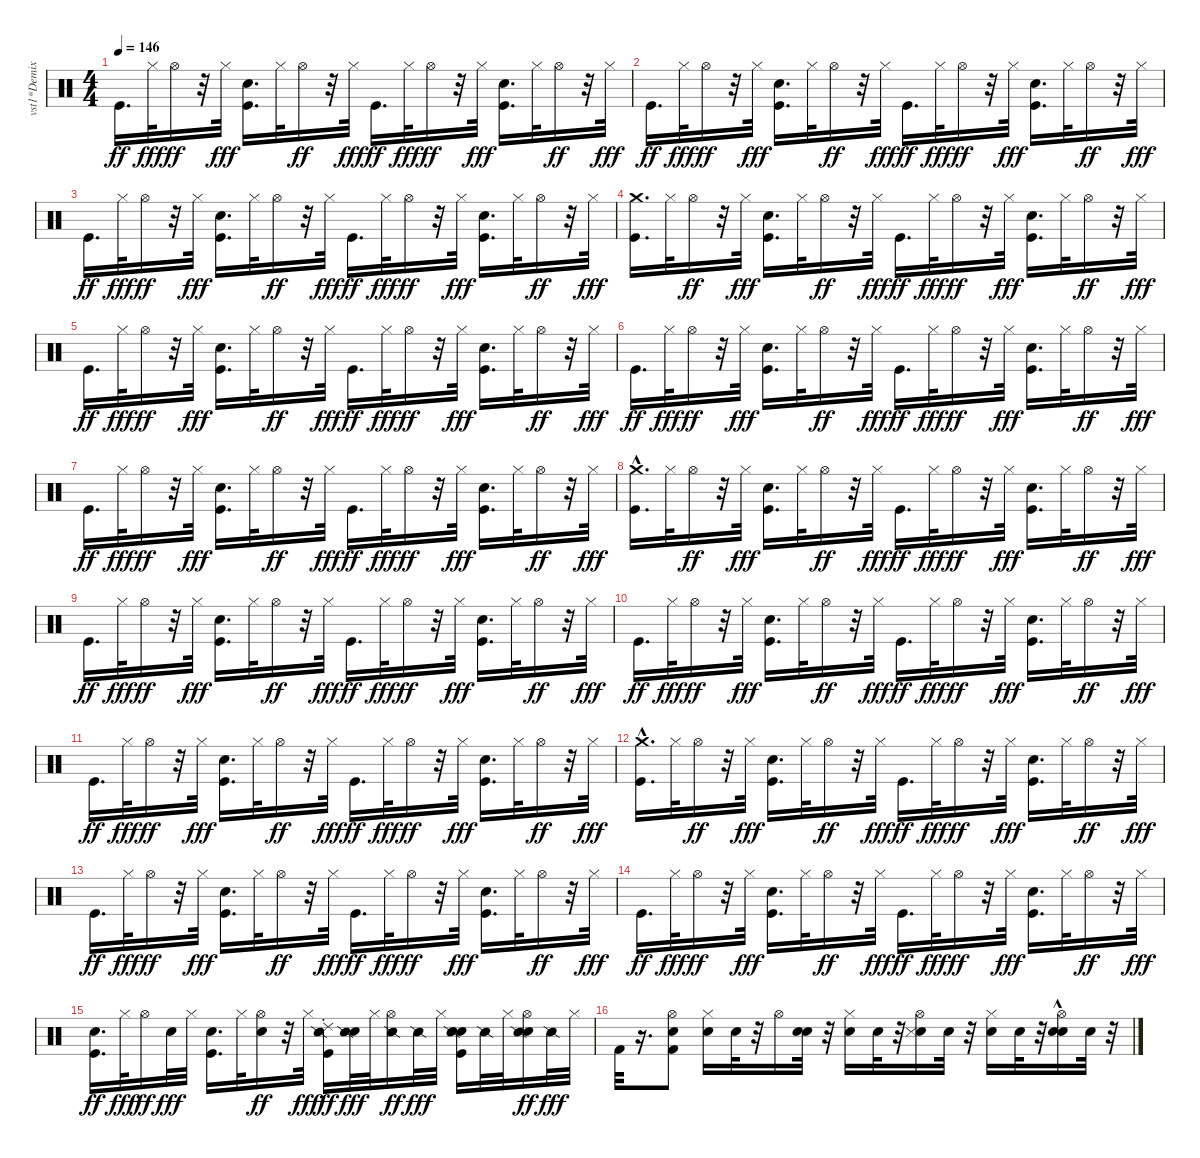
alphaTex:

\track ("vst1*Demixed 10" "vst1*Demix") {instrument percussion}
\staff {score}
\articulation defaults
\ts (4 4)
\tempo 146
\clef neutral
\ks c "Kick (hit)".16{d dy ff} "Hi-Hat (closed)".32{dy fff} "Hi-Hat (open)".16{dy ff}
r.32 "Hi-Hat (closed)".32{dy fff} ("Kick (hit)" "Hand Clap (hit)").16{d} "Hi-Hat (closed)".32 "Hi-Hat (open)".16{dy ff} r.32 "Hi-Hat (closed)".32{dy fff} "Kick (hit)".16{d dy ff} "Hi-Hat (closed)".32{dy fff} "Hi-Hat (open)".16{dy ff} r.32 "Hi-Hat (closed)".32{dy fff} ("Kick (hit)" "Hand Clap (hit)").16{d} "Hi-Hat (closed)".32 "Hi-Hat (open)".16{dy ff} r.32 "Hi-Hat (closed)".32{dy fff} |
"Kick (hit)".16{d dy ff} "Hi-Hat (closed)".32{dy fff} "Hi-Hat (open)".16{dy ff} r.32 "Hi-Hat (closed)".32{dy fff} ("Kick (hit)" "Hand Clap (hit)").16{d} "Hi-Hat (closed)".32 "Hi-Hat (open)".16{dy ff} r.32 "Hi-Hat (closed)".32{dy fff} "Kick (hit)".16{d dy ff} "Hi-Hat (closed)".32{dy fff} "Hi-Hat (open)".16{dy ff} r.32 "Hi-Hat (closed)".32{dy fff} ("Kick (hit)" "Hand Clap (hit)").16{d} "Hi-Hat (closed)".32 "Hi-Hat (open)".16{dy ff} r.32 "Hi-Hat (closed)".32{dy fff} |
"Kick (hit)".16{d dy ff} "Hi-Hat (closed)".32{dy fff} "Hi-Hat (open)".16{dy ff} r.32 "Hi-Hat (closed)".32{dy fff} ("Kick (hit)" "Hand Clap (hit)").16{d} "Hi-Hat (closed)".32 "Hi-Hat (open)".16{dy ff} r.32 "Hi-Hat (closed)".32{dy fff} "Kick (hit)".16{d dy ff} "Hi-Hat (closed)".32{dy fff} "Hi-Hat (open)".16{dy ff} r.32 "Hi-Hat (closed)".32{dy fff} ("Kick (hit)" "Hand Clap (hit)").16{d} "Hi-Hat (closed)".32 "Hi-Hat (open)".16{dy ff} r.32 "Hi-Hat (closed)".32{dy fff} |
("Kick (hit)" "Crash medium (hit)").16{d} "Hi-Hat (closed)".32 "Hi-Hat (open)".16{dy ff} r.32 "Hi-Hat (closed)".32{dy fff} ("Kick (hit)" "Hand Clap (hit)").16{d} "Hi-Hat (closed)".32 "Hi-Hat (open)".16{dy ff} r.32 "Hi-Hat (closed)".32{dy fff} "Kick (hit)".16{d dy ff} "Hi-Hat (closed)".32{dy fff} "Hi-Hat (open)".16{dy ff} r.32 "Hi-Hat (closed)".32{dy fff} ("Kick (hit)" "Hand Clap (hit)").16{d} "Hi-Hat (closed)".32 "Hi-Hat (open)".16{dy ff} r.32 "Hi-Hat (closed)".32{dy fff} |
"Kick (hit)".16{d dy ff} "Hi-Hat (closed)".32{dy fff} "Hi-Hat (open)".16{dy ff} r.32 "Hi-Hat (closed)".32{dy fff} ("Kick (hit)" "Hand Clap (hit)").16{d} "Hi-Hat (closed)".32 "Hi-Hat (open)".16{dy ff} r.32 "Hi-Hat (closed)".32{dy fff} "Kick (hit)".16{d dy ff} "Hi-Hat (closed)".32{dy fff} "Hi-Hat (open)".16{dy ff} r.32 "Hi-Hat (closed)".32{dy fff} ("Kick (hit)" "Hand Clap (hit)").16{d} "Hi-Hat (closed)".32 "Hi-Hat (open)".16{dy ff} r.32 "Hi-Hat (closed)".32{dy fff} |
"Kick (hit)".16{d dy ff} "Hi-Hat (closed)".32{dy fff} "Hi-Hat (open)".16{dy ff} r.32 "Hi-Hat (closed)".32{dy fff} ("Kick (hit)" "Hand Clap (hit)").16{d} "Hi-Hat (closed)".32 "Hi-Hat (open)".16{dy ff} r.32 "Hi-Hat (closed)".32{dy fff} "Kick (hit)".16{d dy ff} "Hi-Hat (closed)".32{dy fff} "Hi-Hat (open)".16{dy ff} r.32 "Hi-Hat (closed)".32{dy fff} ("Kick (hit)" "Hand Clap (hit)").16{d} "Hi-Hat (closed)".32 "Hi-Hat (open)".16{dy ff} r.32 "Hi-Hat (closed)".32{dy fff} |
"Kick (hit)".16{d dy ff} "Hi-Hat (closed)".32{dy fff} "Hi-Hat (open)".16{dy ff} r.32 "Hi-Hat (closed)".32{dy fff} ("Kick (hit)" "Hand Clap (hit)").16{d} "Hi-Hat (closed)".32 "Hi-Hat (open)".16{dy ff} r.32 "Hi-Hat (closed)".32{dy fff} "Kick (hit)".16{d dy ff} "Hi-Hat (closed)".32{dy fff} "Hi-Hat (open)".16{dy ff} r.32 "Hi-Hat (closed)".32{dy fff} ("Kick (hit)" "Hand Clap (hit)").16{d} "Hi-Hat (closed)".32 "Hi-Hat (open)".16{dy ff} r.32 "Hi-Hat (closed)".32{dy fff} |
("Kick (hit)" "Crash medium (hit)"{hac}).16{d} "Hi-Hat (closed)".32 "Hi-Hat (open)".16{dy ff} r.32 "Hi-Hat (closed)".32{dy fff} ("Kick (hit)" "Hand Clap (hit)").16{d} "Hi-Hat (closed)".32 "Hi-Hat (open)".16{dy ff} r.32 "Hi-Hat (closed)".32{dy fff} "Kick (hit)".16{d dy ff} "Hi-Hat (closed)".32{dy fff} "Hi-Hat (open)".16{dy ff} r.32 "Hi-Hat (closed)".32{dy fff} ("Kick (hit)" "Hand Clap (hit)").16{d} "Hi-Hat (closed)".32 "Hi-Hat (open)".16{dy ff} r.32 "Hi-Hat (closed)".32{dy fff} |
"Kick (hit)".16{d dy ff} "Hi-Hat (closed)".32{dy fff} "Hi-Hat (open)".16{dy ff} r.32 "Hi-Hat (closed)".32{dy fff} ("Kick (hit)" "Hand Clap (hit)").16{d} "Hi-Hat (closed)".32 "Hi-Hat (open)".16{dy ff} r.32 "Hi-Hat (closed)".32{dy fff} "Kick (hit)".16{d dy ff} "Hi-Hat (closed)".32{dy fff} "Hi-Hat (open)".16{dy ff} r.32 "Hi-Hat (closed)".32{dy fff} ("Kick (hit)" "Hand Clap (hit)").16{d} "Hi-Hat (closed)".32 "Hi-Hat (open)".16{dy ff} r.32 "Hi-Hat (closed)".32{dy fff} |
"Kick (hit)".16{d dy ff} "Hi-Hat (closed)".32{dy fff} "Hi-Hat (open)".16{dy ff} r.32 "Hi-Hat (closed)".32{dy fff} ("Kick (hit)" "Hand Clap (hit)").16{d} "Hi-Hat (closed)".32 "Hi-Hat (open)".16{dy ff} r.32 "Hi-Hat (closed)".32{dy fff} "Kick (hit)".16{d dy ff} "Hi-Hat (closed)".32{dy fff} "Hi-Hat (open)".16{dy ff} r.32 "Hi-Hat (closed)".32{dy fff} ("Kick (hit)" "Hand Clap (hit)").16{d} "Hi-Hat (closed)".32 "Hi-Hat (open)".16{dy ff} r.32 "Hi-Hat (closed)".32{dy fff} |
"Kick (hit)".16{d dy ff} "Hi-Hat (closed)".32{dy fff} "Hi-Hat (open)".16{dy ff} r.32 "Hi-Hat (closed)".32{dy fff} ("Kick (hit)" "Hand Clap (hit)").16{d} "Hi-Hat (closed)".32 "Hi-Hat (open)".16{dy ff} r.32 "Hi-Hat (closed)".32{dy fff} "Kick (hit)".16{d dy ff} "Hi-Hat (closed)".32{dy fff} "Hi-Hat (open)".16{dy ff} r.32 "Hi-Hat (closed)".32{dy fff} ("Kick (hit)" "Hand Clap (hit)").16{d} "Hi-Hat (closed)".32 "Hi-Hat (open)".16{dy ff} r.32 "Hi-Hat (closed)".32{dy fff} |
("Kick (hit)" "Crash medium (hit)"{hac}).16{d} "Hi-Hat (closed)".32 "Hi-Hat (open)".16{dy ff} r.32 "Hi-Hat (closed)".32{dy fff} ("Kick (hit)" "Hand Clap (hit)").16{d} "Hi-Hat (closed)".32 "Hi-Hat (open)".16{dy ff} r.32 "Hi-Hat (closed)".32{dy fff} "Kick (hit)".16{d dy ff} "Hi-Hat (closed)".32{dy fff} "Hi-Hat (open)".16{dy ff} r.32 "Hi-Hat (closed)".32{dy fff} ("Kick (hit)" "Hand Clap (hit)").16{d} "Hi-Hat (closed)".32 "Hi-Hat (open)".16{dy ff} r.32 "Hi-Hat (closed)".32{dy fff} |
"Kick (hit)".16{d dy ff} "Hi-Hat (closed)".32{dy fff} "Hi-Hat (open)".16{dy ff} r.32 "Hi-Hat (closed)".32{dy fff} ("Kick (hit)" "Hand Clap (hit)").16{d} "Hi-Hat (closed)".32 "Hi-Hat (open)".16{dy ff} r.32 "Hi-Hat (closed)".32{dy fff} "Kick (hit)".16{d dy ff} "Hi-Hat (closed)".32{dy fff} "Hi-Hat (open)".16{dy ff} r.32 "Hi-Hat (closed)".32{dy fff} ("Kick (hit)" "Hand Clap (hit)").16{d} "Hi-Hat (closed)".32 "Hi-Hat (open)".16{dy ff} r.32 "Hi-Hat (closed)".32{dy fff} |
"Kick (hit)".16{d dy ff} "Hi-Hat (closed)".32{dy fff} "Hi-Hat (open)".16{dy ff} r.32 "Hi-Hat (closed)".32{dy fff} ("Kick (hit)" "Hand Clap (hit)").16{d} "Hi-Hat (closed)".32 "Hi-Hat (open)".16{dy ff} r.32 "Hi-Hat (closed)".32{dy fff} "Kick (hit)".16{d dy ff} "Hi-Hat (closed)".32{dy fff} "Hi-Hat (open)".16{dy ff} r.32 "Hi-Hat (closed)".32{dy fff} ("Kick (hit)" "Hand Clap (hit)").16{d} "Hi-Hat (closed)".32 "Hi-Hat (open)".16{dy ff} r.32 "Hi-Hat (closed)".32{dy fff} |
("Snare (hit)" "Kick (hit)").16{d dy ff} "Hi-Hat (closed)".32{dy fff} "Hi-Hat (open)".16{dy ff} "Snare (hit)".32{dy fff} "Hi-Hat (closed)".32 ("Kick (hit)" "Hand Clap (hit)").16{d} "Hi-Hat (closed)".32 ("Snare (hit)" "Hi-Hat (open)").16{dy ff} r.32 "Hi-Hat (closed)".32{dy fff} ("Ride (choke) 2" "Snare (side stick) 2" "Kick (hit)").16{dy ff} ("Snare (hit)" "Snare (side stick) 2").32{dy fff} "Hi-Hat (closed)".32 ("Snare (side stick) 2" "Hi-Hat (open)").16{dy ff} "Snare (side stick) 2".32{dy fff} "Hi-Hat (closed)".32 ("Snare (hit)" "Snare (side stick) 2" "Kick (hit)" "Hand Clap (hit)").16 "Snare (side stick) 2".32 "Hi-Hat (closed)".32 ("Snare (hit)" "Snare (side stick) 2" "Hi-Hat (open)").16{dy ff} "Snare (side stick) 2".32{dy fff} "Hi-Hat (closed)".32 |
"Kick (hit) 2".32 r.16{d} ("Snare (hit)" "Kick (hit) 2" "Hi-Hat (open)").8 ("Metronome (bell)" "Hi-Hat (closed)").16 "Snare (hit)".32 r.32 "Hi-Hat (open)".16 ("Snare (hit)" "Metronome (bell)").32 r.32 ("Snare (hit)" "Hi-Hat (closed)").16 "Metronome (bell)".32 r.32 ("Snare (hit)" "Snare (side stick) 3" "Hi-Hat (open)").16 "Snare (hit)".32 r.32 ("Metronome (bell)" "Hi-Hat (closed)").16 "Snare (hit)".32 r.32 ("Snare (hit)" "Metronome (bell)" "Hi-Hat (open)"{hac}).16 "Metronome (bell)".32 r.32
